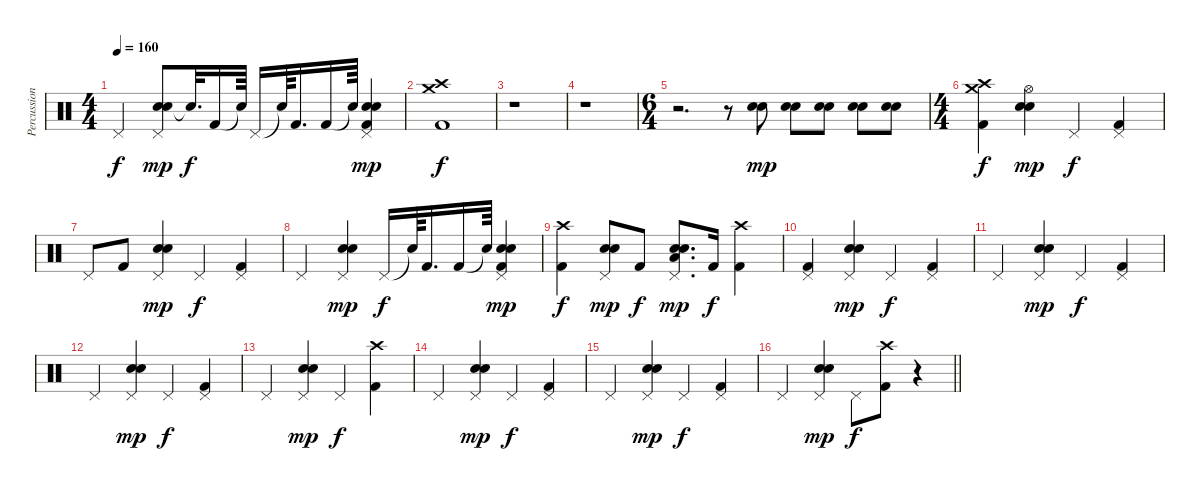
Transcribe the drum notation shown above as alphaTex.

\track ("Percussion" "Percussion") {instrument percussion}
\staff {score}
\articulation defaults
\ts (4 4)
\tempo 160
\clef neutral
\ks c "Pedal Hi-Hat (hit)".4{dy f}
("Snare (hit) 2" "Electric Snare (hit)" "Pedal Hi-Hat (hit)").8{dy mp} "Snare (hit)"{t}.32{d dy f} "Kick (hit) 2".16 "Snare (hit)"{t}.64 "Pedal Hi-Hat (hit)".16 "Snare (hit)"{t}.64 "Kick (hit) 2".16{d} "Kick (hit) 2".16 "Snare (hit)"{t}.64 ("Snare (hit) 2" "Electric Snare (hit)" "Pedal Hi-Hat (hit)" "Kick (hit) 2").4{dy mp} |
("Kick (hit) 2" "Crash high (hit)" "Crash medium (hit)").1{dy f} |
r.1 |
r.1 |
\ts (6 4)
r.2{d} r.8 ("Snare (hit) 2" "Electric Snare (hit)").8{dy mp} ("Snare (hit) 2" "Electric Snare (hit)").8 ("Snare (hit) 2" "Electric Snare (hit)").8 ("Snare (hit) 2" "Electric Snare (hit)").8 ("Snare (hit) 2" "Electric Snare (hit)").8 |
\ts (4 4)
("Crash medium (hit)" "Kick (hit) 2" "Crash high (hit)").4{dy f} ("Snare (hit) 2" "Electric Snare (hit)" "Hi-Hat (open)").4{dy mp} "Pedal Hi-Hat (hit)".4{dy f} ("Pedal Hi-Hat (hit)" "Kick (hit) 2").4 |
"Pedal Hi-Hat (hit)".8 "Kick (hit) 2".8 ("Pedal Hi-Hat (hit)" "Snare (hit) 2" "Electric Snare (hit)").4{dy mp} "Pedal Hi-Hat (hit)".4{dy f} ("Pedal Hi-Hat (hit)" "Kick (hit) 2").4 |
"Pedal Hi-Hat (hit)".4 ("Pedal Hi-Hat (hit)" "Snare (hit) 2" "Electric Snare (hit)").4{dy mp} "Pedal Hi-Hat (hit)".16{dy f} "Snare (hit)"{t}.64 "Kick (hit) 2".16{d} "Kick (hit) 2".16 "Snare (hit)"{t}.64 ("Pedal Hi-Hat (hit)" "Snare (hit) 2" "Kick (hit) 2" "Electric Snare (hit)").4{dy mp} |
("Kick (hit) 2" "Crash high (hit)").4{dy f} ("Pedal Hi-Hat (hit)" "Electric Snare (hit)" "Snare (hit) 2").8{dy mp} "Kick (hit) 2".8{dy f} ("Pedal Hi-Hat (hit)" "Snare (hit) 2" "Low Tom (hit)" "Electric Snare (hit)").8{d dy mp} "Kick (hit) 2".16{dy f} ("Crash high (hit)" "Kick (hit) 2").4 |
("Pedal Hi-Hat (hit)" "Kick (hit) 2").4 ("Pedal Hi-Hat (hit)" "Snare (hit) 2" "Electric Snare (hit)").4{dy mp} "Pedal Hi-Hat (hit)".4{dy f} ("Kick (hit) 2" "Pedal Hi-Hat (hit)").4 |
"Pedal Hi-Hat (hit)".4 ("Snare (hit) 2" "Pedal Hi-Hat (hit)" "Electric Snare (hit)").4{dy mp} "Pedal Hi-Hat (hit)".4{dy f} ("Kick (hit) 2" "Pedal Hi-Hat (hit)").4 |
"Pedal Hi-Hat (hit)".4 ("Snare (hit) 2" "Pedal Hi-Hat (hit)" "Electric Snare (hit)").4{dy mp} "Pedal Hi-Hat (hit)".4{dy f} ("Kick (hit) 2" "Pedal Hi-Hat (hit)").4 |
"Pedal Hi-Hat (hit)".4 ("Snare (hit) 2" "Pedal Hi-Hat (hit)" "Electric Snare (hit)").4{dy mp} "Pedal Hi-Hat (hit)".4{dy f} ("Crash high (hit)" "Kick (hit) 2").4 |
"Pedal Hi-Hat (hit)".4 ("Pedal Hi-Hat (hit)" "Snare (hit) 2" "Electric Snare (hit)").4{dy mp} "Pedal Hi-Hat (hit)".4{dy f} ("Kick (hit) 2" "Pedal Hi-Hat (hit)").4 |
"Pedal Hi-Hat (hit)".4 ("Snare (hit) 2" "Pedal Hi-Hat (hit)" "Electric Snare (hit)").4{dy mp} "Pedal Hi-Hat (hit)".4{dy f} ("Pedal Hi-Hat (hit)" "Kick (hit) 2").4 |
\barLineRight lightlight "Pedal Hi-Hat (hit)".4
("Pedal Hi-Hat (hit)" "Snare (hit) 2" "Electric Snare (hit)").4{dy mp} "Pedal Hi-Hat (hit)".8{dy f} ("Crash high (hit)" "Kick (hit) 2").8 r.4
